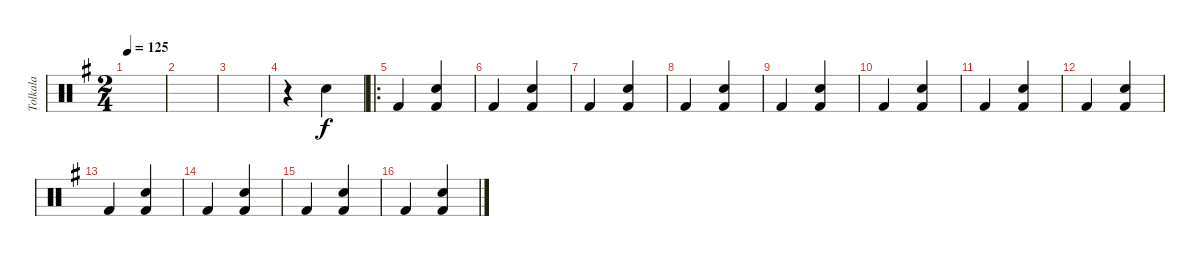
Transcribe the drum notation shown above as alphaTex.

\track ("Tolkala" "Tolkala") {instrument percussion}
\staff {score}
\articulation defaults
\ts (2 4)
\tempo 125
\clef neutral
\ks g
|
|
|
r.4 "Snare (hit) 2".4 |
\ro "Kick (hit) 2".4
("Kick (hit) 2" "Snare (hit) 2").4 |
"Kick (hit) 2".4 ("Kick (hit) 2" "Snare (hit) 2").4 |
"Kick (hit) 2".4 ("Kick (hit) 2" "Snare (hit) 2").4 |
"Kick (hit) 2".4 ("Kick (hit) 2" "Snare (hit) 2").4 |
"Kick (hit) 2".4 ("Kick (hit) 2" "Snare (hit) 2").4 |
"Kick (hit) 2".4 ("Kick (hit) 2" "Snare (hit) 2").4 |
"Kick (hit) 2".4 ("Kick (hit) 2" "Snare (hit) 2").4 |
"Kick (hit) 2".4 ("Kick (hit) 2" "Snare (hit) 2").4 |
"Kick (hit) 2".4 ("Kick (hit) 2" "Snare (hit) 2").4 |
"Kick (hit) 2".4 ("Kick (hit) 2" "Snare (hit) 2").4 |
"Kick (hit) 2".4 ("Kick (hit) 2" "Snare (hit) 2").4 |
"Kick (hit) 2".4 ("Kick (hit) 2" "Snare (hit) 2").4
